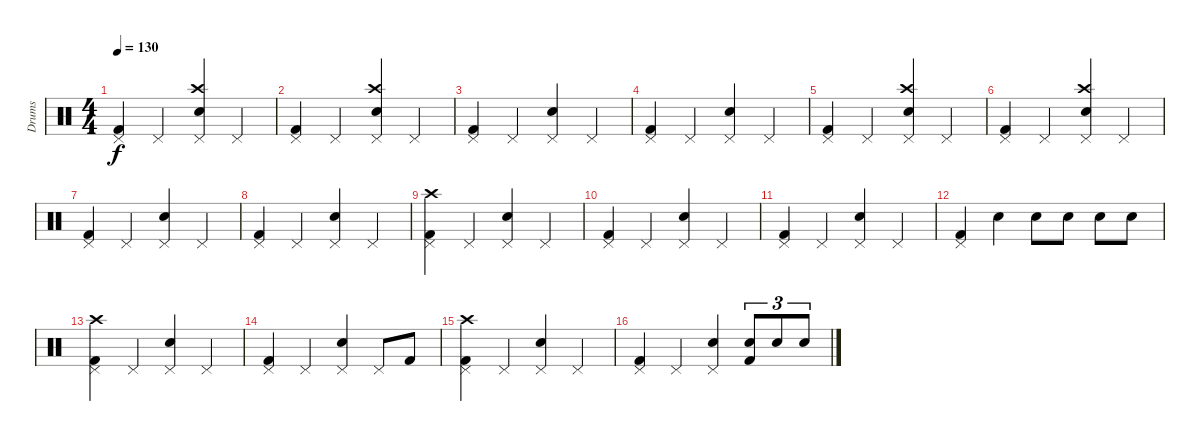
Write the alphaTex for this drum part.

\track ("Drums" "Drums") {instrument percussion}
\staff {score}
\articulation defaults
\ts (4 4)
\tempo 130
\clef neutral
\ks c
("Pedal Hi-Hat (hit)" "Kick (hit) 2").4{dy f} "Pedal Hi-Hat (hit)".4 ("Pedal Hi-Hat (hit)" "Crash high (hit)" "Snare (hit) 2").4 "Pedal Hi-Hat (hit)".4 |
("Pedal Hi-Hat (hit)" "Kick (hit) 2").4 "Pedal Hi-Hat (hit)".4 ("Pedal Hi-Hat (hit)" "Crash high (hit)" "Snare (hit) 2").4 "Pedal Hi-Hat (hit)".4 |
("Pedal Hi-Hat (hit)" "Kick (hit) 2").4 "Pedal Hi-Hat (hit)".4 ("Pedal Hi-Hat (hit)" "Snare (hit) 2").4 "Pedal Hi-Hat (hit)".4 |
("Pedal Hi-Hat (hit)" "Kick (hit) 2").4 "Pedal Hi-Hat (hit)".4 ("Pedal Hi-Hat (hit)" "Snare (hit) 2").4 "Pedal Hi-Hat (hit)".4 |
("Pedal Hi-Hat (hit)" "Kick (hit) 2").4 "Pedal Hi-Hat (hit)".4 ("Pedal Hi-Hat (hit)" "Crash high (hit)" "Snare (hit) 2").4 "Pedal Hi-Hat (hit)".4 |
("Pedal Hi-Hat (hit)" "Kick (hit) 2").4 "Pedal Hi-Hat (hit)".4 ("Pedal Hi-Hat (hit)" "Crash high (hit)" "Snare (hit) 2").4 "Pedal Hi-Hat (hit)".4 |
("Pedal Hi-Hat (hit)" "Kick (hit) 2").4 "Pedal Hi-Hat (hit)".4 ("Pedal Hi-Hat (hit)" "Snare (hit) 2").4 "Pedal Hi-Hat (hit)".4 |
("Pedal Hi-Hat (hit)" "Kick (hit) 2").4 "Pedal Hi-Hat (hit)".4 ("Pedal Hi-Hat (hit)" "Snare (hit) 2").4 "Pedal Hi-Hat (hit)".4 |
("Pedal Hi-Hat (hit)" "Crash high (hit)" "Kick (hit) 2").4 "Pedal Hi-Hat (hit)".4 ("Pedal Hi-Hat (hit)" "Snare (hit) 2").4 "Pedal Hi-Hat (hit)".4 |
("Pedal Hi-Hat (hit)" "Kick (hit) 2").4 "Pedal Hi-Hat (hit)".4 ("Pedal Hi-Hat (hit)" "Snare (hit) 2").4 "Pedal Hi-Hat (hit)".4 |
("Pedal Hi-Hat (hit)" "Kick (hit) 2").4 "Pedal Hi-Hat (hit)".4 ("Pedal Hi-Hat (hit)" "Snare (hit) 2").4 "Pedal Hi-Hat (hit)".4 |
("Pedal Hi-Hat (hit)" "Kick (hit) 2").4 "Snare (hit) 2".4 "Snare (hit) 2".8 "Snare (hit) 2".8 "Snare (hit) 2".8 "Snare (hit) 2".8 |
("Pedal Hi-Hat (hit)" "Crash high (hit)" "Kick (hit) 2").4 "Pedal Hi-Hat (hit)".4 ("Pedal Hi-Hat (hit)" "Snare (hit) 2").4 "Pedal Hi-Hat (hit)".4 |
("Pedal Hi-Hat (hit)" "Kick (hit) 2").4 "Pedal Hi-Hat (hit)".4 ("Pedal Hi-Hat (hit)" "Snare (hit) 2").4 "Pedal Hi-Hat (hit)".8 "Kick (hit) 2".8 |
("Pedal Hi-Hat (hit)" "Crash high (hit)" "Kick (hit) 2").4 "Pedal Hi-Hat (hit)".4 ("Pedal Hi-Hat (hit)" "Snare (hit) 2").4 "Pedal Hi-Hat (hit)".4 |
("Pedal Hi-Hat (hit)" "Kick (hit) 2").4 "Pedal Hi-Hat (hit)".4 ("Pedal Hi-Hat (hit)" "Snare (hit) 2").4 ("Snare (hit) 2" "Kick (hit) 2").8{tu (3 2)} "Snare (hit) 2".8{tu (3 2)} "Snare (hit) 2".8{tu (3 2)}
